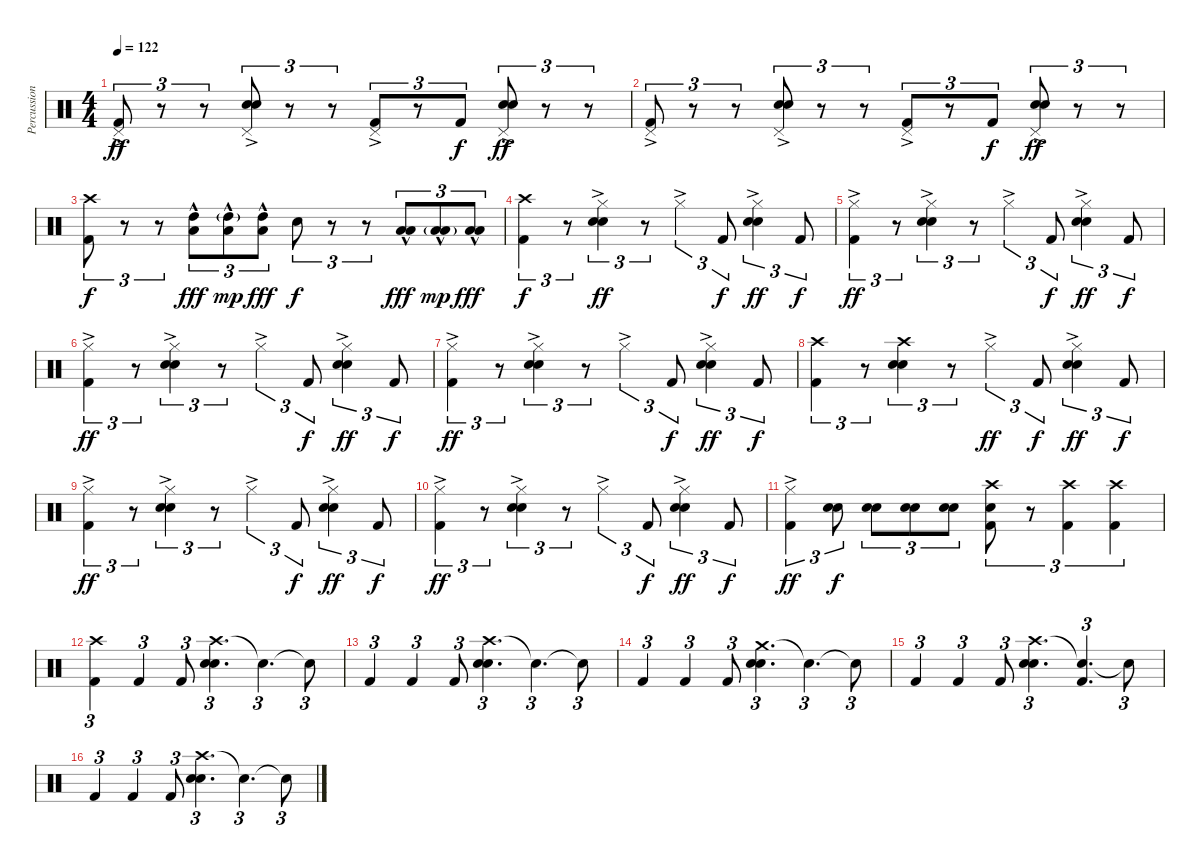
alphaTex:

\track ("Percussion" "Percussion") {instrument percussion}
\staff {score}
\articulation defaults
\ts (4 4)
\tempo 122
\clef neutral
\ks c
("Pedal Hi-Hat (hit)"{ac} "Kick (hit) 2").8{tu (3 2) dy ff} r.8{tu (3 2)} r.8{tu (3 2)} ("Pedal Hi-Hat (hit)"{ac} "Snare (hit) 2" "Electric Snare (hit)").8{tu (3 2)} r.8{tu (3 2)} r.8{tu (3 2)} ("Pedal Hi-Hat (hit)"{ac} "Kick (hit) 2").8{tu (3 2)} r.8{tu (3 2)} "Kick (hit) 2".8{tu (3 2) dy f} ("Pedal Hi-Hat (hit)"{ac} "Snare (hit) 2" "Electric Snare (hit)").8{tu (3 2) dy ff} r.8{tu (3 2)} r.8{tu (3 2)} |
("Pedal Hi-Hat (hit)"{ac} "Kick (hit) 2").8{tu (3 2)} r.8{tu (3 2)} r.8{tu (3 2)} ("Pedal Hi-Hat (hit)"{ac} "Snare (hit) 2" "Electric Snare (hit)").8{tu (3 2)} r.8{tu (3 2)} r.8{tu (3 2)} ("Pedal Hi-Hat (hit)"{ac} "Kick (hit) 2").8{tu (3 2)} r.8{tu (3 2)} "Kick (hit) 2".8{tu (3 2) dy f} ("Pedal Hi-Hat (hit)"{ac} "Snare (hit) 2" "Electric Snare (hit)").8{tu (3 2) dy ff} r.8{tu (3 2)} r.8{tu (3 2)} |
("Crash high (hit)" "Kick (hit) 2").8{tu (3 2) dy f} r.8{tu (3 2)} r.8{tu (3 2)} ("Low Floor Tom (hit)"{hac} "High Tom (hit)").8{tu (3 2) dy fff} ("Low Floor Tom (hit)"{hac} "High Tom (hit)"{g}).8{tu (3 2) dy mp} ("Low Floor Tom (hit)"{hac} "High Tom (hit)").8{tu (3 2) dy fff} "Snare (hit) 2".8{tu (3 2) dy f} r.8{tu (3 2)} r.8{tu (3 2)} ("Low Tom (hit)"{hac} "Low Floor Tom (hit)").8{tu (3 2) dy fff} ("Low Tom (hit)"{hac} "Low Floor Tom (hit)"{g}).8{tu (3 2) dy mp} ("Low Tom (hit)"{hac} "Low Floor Tom (hit)").8{tu (3 2) dy fff} |
("Crash high (hit)" "Kick (hit) 2").4{tu (3 2) dy f} r.8{tu (3 2)} ("Hi-Hat (closed)"{ac} "Snare (hit) 2" "Electric Snare (hit)").4{tu (3 2) dy ff} r.8{tu (3 2)} "Hi-Hat (closed)"{ac}.4{tu (3 2)} "Kick (hit) 2".8{tu (3 2) dy f} ("Hi-Hat (closed)"{ac} "Snare (hit) 2" "Electric Snare (hit)").4{tu (3 2) dy ff} "Kick (hit) 2".8{tu (3 2) dy f} |
("Hi-Hat (closed)"{ac} "Kick (hit) 2").4{tu (3 2) dy ff} r.8{tu (3 2)} ("Hi-Hat (closed)"{ac} "Snare (hit) 2" "Electric Snare (hit)").4{tu (3 2)} r.8{tu (3 2)} "Hi-Hat (closed)"{ac}.4{tu (3 2)} "Kick (hit) 2".8{tu (3 2) dy f} ("Hi-Hat (closed)"{ac} "Snare (hit) 2" "Electric Snare (hit)").4{tu (3 2) dy ff} "Kick (hit) 2".8{tu (3 2) dy f} |
("Hi-Hat (closed)"{ac} "Kick (hit) 2").4{tu (3 2) dy ff} r.8{tu (3 2)} ("Hi-Hat (closed)"{ac} "Snare (hit) 2" "Electric Snare (hit)").4{tu (3 2)} r.8{tu (3 2)} "Hi-Hat (closed)"{ac}.4{tu (3 2)} "Kick (hit) 2".8{tu (3 2) dy f} ("Hi-Hat (closed)"{ac} "Snare (hit) 2" "Electric Snare (hit)").4{tu (3 2) dy ff} "Kick (hit) 2".8{tu (3 2) dy f} |
("Hi-Hat (closed)"{ac} "Kick (hit) 2").4{tu (3 2) dy ff} r.8{tu (3 2)} ("Hi-Hat (closed)"{ac} "Snare (hit) 2" "Electric Snare (hit)").4{tu (3 2)} r.8{tu (3 2)} "Hi-Hat (closed)"{ac}.4{tu (3 2)} "Kick (hit) 2".8{tu (3 2) dy f} ("Hi-Hat (closed)"{ac} "Snare (hit) 2" "Electric Snare (hit)").4{tu (3 2) dy ff} "Kick (hit) 2".8{tu (3 2) dy f} |
("Crash high (hit)" "Kick (hit) 2").4{tu (3 2)} r.8{tu (3 2)} ("Crash high (hit)" "Snare (hit) 2" "Electric Snare (hit)").4{tu (3 2)} r.8{tu (3 2)} "Hi-Hat (closed)"{ac}.4{tu (3 2) dy ff} "Kick (hit) 2".8{tu (3 2) dy f} ("Hi-Hat (closed)"{ac} "Snare (hit) 2" "Electric Snare (hit)").4{tu (3 2) dy ff} "Kick (hit) 2".8{tu (3 2) dy f} |
("Hi-Hat (closed)"{ac} "Kick (hit) 2").4{tu (3 2) dy ff} r.8{tu (3 2)} ("Hi-Hat (closed)"{ac} "Snare (hit) 2" "Electric Snare (hit)").4{tu (3 2)} r.8{tu (3 2)} "Hi-Hat (closed)"{ac}.4{tu (3 2)} "Kick (hit) 2".8{tu (3 2) dy f} ("Hi-Hat (closed)"{ac} "Snare (hit) 2" "Electric Snare (hit)").4{tu (3 2) dy ff} "Kick (hit) 2".8{tu (3 2) dy f} |
("Hi-Hat (closed)"{ac} "Kick (hit) 2").4{tu (3 2) dy ff} r.8{tu (3 2)} ("Hi-Hat (closed)"{ac} "Snare (hit) 2" "Electric Snare (hit)").4{tu (3 2)} r.8{tu (3 2)} "Hi-Hat (closed)"{ac}.4{tu (3 2)} "Kick (hit) 2".8{tu (3 2) dy f} ("Hi-Hat (closed)"{ac} "Snare (hit) 2" "Electric Snare (hit)").4{tu (3 2) dy ff} "Kick (hit) 2".8{tu (3 2) dy f} |
("Hi-Hat (closed)"{ac} "Kick (hit) 2").4{tu (3 2) dy ff} ("Electric Snare (hit)" "Snare (hit) 2").8{tu (3 2) dy f} ("Electric Snare (hit)" "Snare (hit) 2").8{tu (3 2)} ("Electric Snare (hit)" "Snare (hit) 2").8{tu (3 2)} ("Electric Snare (hit)" "Snare (hit) 2").8{tu (3 2)} ("Crash high (hit)" "Snare (hit) 2" "Kick (hit) 2").8{tu (3 2)} r.8{tu (3 2)} ("Crash high (hit)" "Kick (hit) 2").4{tu (3 2)} ("Crash high (hit)" "Kick (hit) 2").4{tu (3 2)} |
("Crash high (hit)" "Kick (hit) 2").4{tu (3 2)} "Kick (hit) 2".4{tu (3 2)} "Kick (hit) 2".8{tu (3 2)} ("Crash high (hit)" "Snare (hit) 2" "Electric Snare (hit)").4{d tu (3 2)} "Snare (hit)"{t}.4{d tu (3 2)} "Snare (hit)"{t}.8{tu (3 2)} |
"Kick (hit) 2".4{tu (3 2)} "Kick (hit) 2".4{tu (3 2)} "Kick (hit) 2".8{tu (3 2)} ("Crash high (hit)" "Snare (hit) 2" "Electric Snare (hit)").4{d tu (3 2)} "Snare (hit)"{t}.4{d tu (3 2)} "Snare (hit)"{t}.8{tu (3 2)} |
"Kick (hit) 2".4{tu (3 2)} "Kick (hit) 2".4{tu (3 2)} "Kick (hit) 2".8{tu (3 2)} ("Crash medium (hit)" "Snare (hit) 2" "Electric Snare (hit)").4{d tu (3 2)} "Snare (hit)"{t}.4{d tu (3 2)} "Snare (hit)"{t}.8{tu (3 2)} |
"Kick (hit) 2".4{tu (3 2)} "Kick (hit) 2".4{tu (3 2)} "Kick (hit) 2".8{tu (3 2)} ("Crash high (hit)" "Snare (hit) 2" "Electric Snare (hit)").4{d tu (3 2)} ("Snare (hit)"{t} "Kick (hit) 2").4{d tu (3 2)} "Snare (hit)"{t}.8{tu (3 2)} |
"Kick (hit) 2".4{tu (3 2)} "Kick (hit) 2".4{tu (3 2)} "Kick (hit) 2".8{tu (3 2)} ("Crash high (hit)" "Snare (hit) 2" "Electric Snare (hit)").4{d tu (3 2)} "Snare (hit)"{t}.4{d tu (3 2)} "Snare (hit)"{t}.8{tu (3 2)}
